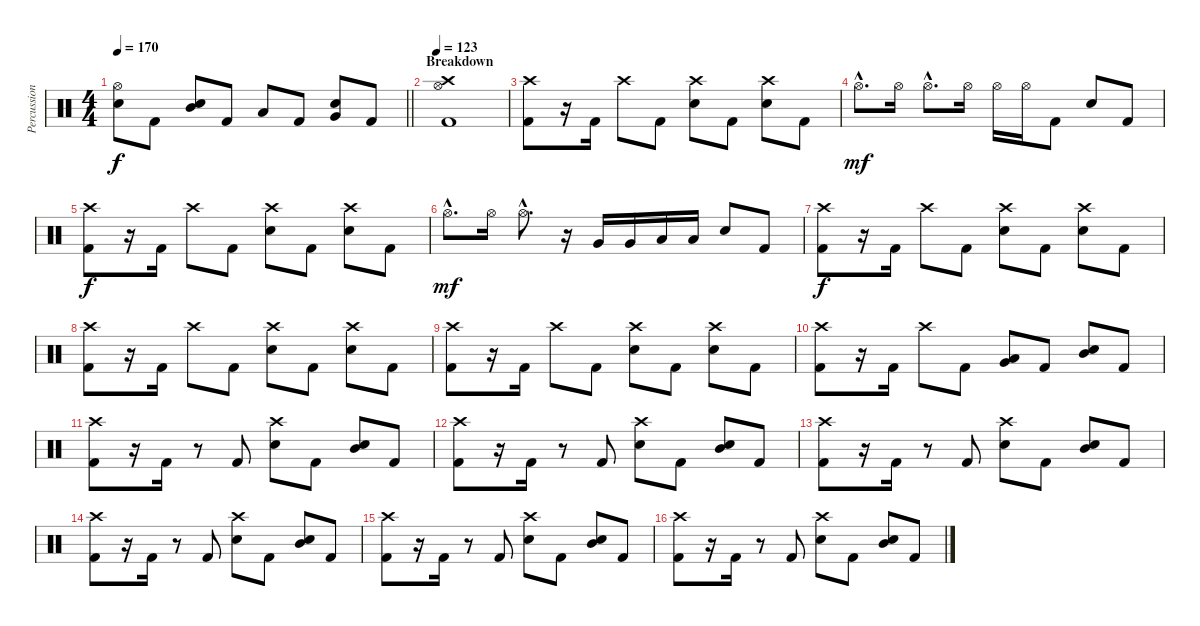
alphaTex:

\track ("Percussion" "Percussion") {instrument percussion}
\staff {score}
\articulation defaults
\ts (4 4)
\tempo 170
\clef neutral
\barLineRight lightlight
\ks c
("Hi-Hat (open)" "Electric Snare (hit)").8{dy f} "Kick (hit) 2".8 ("Mid Tom (hit)" "Electric Snare (hit)").8 "Kick (hit) 2".8 "Low Tom (hit)".8 "Kick (hit) 2".8 ("Electric Snare (hit)" "Very Low Tom (hit)").8 "Kick (hit) 2".8 |
\section ("" "Breakdown")
\tempo 123
("Crash high (hit)" "Hi-Hat (open)" "Kick (hit) 2").1 |
("Crash high (hit)" "Kick (hit) 2").8 r.16 "Kick (hit) 2".16 "Crash high (hit)".8 "Kick (hit) 2".8 ("Crash high (hit)" "Electric Snare (hit)").8 "Kick (hit) 2".8 ("Crash high (hit)" "Electric Snare (hit)").8 "Kick (hit) 2".8 |
"Hi-Hat (open)"{hac}.8{d dy mf} "Hi-Hat (open)".16 "Hi-Hat (open)"{hac}.8{d} "Hi-Hat (open)".16 "Hi-Hat (open)".16 "Hi-Hat (open)".16 "Kick (hit) 2".8 "Electric Snare (hit)".8 "Kick (hit) 2".8 |
("Crash high (hit)" "Kick (hit) 2").8{dy f} r.16 "Kick (hit) 2".16 "Crash high (hit)".8 "Kick (hit) 2".8 ("Crash high (hit)" "Electric Snare (hit)").8 "Kick (hit) 2".8 ("Crash high (hit)" "Electric Snare (hit)").8 "Kick (hit) 2".8 |
"Hi-Hat (open)"{hac}.8{d dy mf} "Hi-Hat (open)".16 "Hi-Hat (open)"{hac}.8{d} r.16 "Very Low Tom (hit)".16 "Very Low Tom (hit)".16 "Low Tom (hit)".16 "Low Tom (hit)".16 "Electric Snare (hit)".8 "Kick (hit) 2".8 |
("Crash high (hit)" "Kick (hit) 2").8{dy f} r.16 "Kick (hit) 2".16 "Crash high (hit)".8 "Kick (hit) 2".8 ("Crash high (hit)" "Electric Snare (hit)").8 "Kick (hit) 2".8 ("Crash high (hit)" "Electric Snare (hit)").8 "Kick (hit) 2".8 |
("Crash high (hit)" "Kick (hit) 2").8 r.16 "Kick (hit) 2".16 "Crash high (hit)".8 "Kick (hit) 2".8 ("Crash high (hit)" "Electric Snare (hit)").8 "Kick (hit) 2".8 ("Crash high (hit)" "Electric Snare (hit)").8 "Kick (hit) 2".8 |
("Crash high (hit)" "Kick (hit) 2").8 r.16 "Kick (hit) 2".16 "Crash high (hit)".8 "Kick (hit) 2".8 ("Crash high (hit)" "Electric Snare (hit)").8 "Kick (hit) 2".8 ("Crash high (hit)" "Electric Snare (hit)").8 "Kick (hit) 2".8 |
("Crash high (hit)" "Kick (hit) 2").8 r.16 "Kick (hit) 2".16 "Crash high (hit)".8 "Kick (hit) 2".8 ("Very Low Tom (hit)" "Low Tom (hit)").8 "Kick (hit) 2".8 ("Mid Tom (hit)" "Electric Snare (hit)").8 "Kick (hit) 2".8 |
("Crash high (hit)" "Kick (hit) 2").8 r.16 "Kick (hit) 2".16 r.8 "Kick (hit) 2".8 ("Crash high (hit)" "Electric Snare (hit)").8 "Kick (hit) 2".8 ("Mid Tom (hit)" "Electric Snare (hit)").8 "Kick (hit) 2".8 |
("Crash high (hit)" "Kick (hit) 2").8 r.16 "Kick (hit) 2".16 r.8 "Kick (hit) 2".8 ("Crash high (hit)" "Electric Snare (hit)").8 "Kick (hit) 2".8 ("Mid Tom (hit)" "Electric Snare (hit)").8 "Kick (hit) 2".8 |
("Crash high (hit)" "Kick (hit) 2").8 r.16 "Kick (hit) 2".16 r.8 "Kick (hit) 2".8 ("Crash high (hit)" "Electric Snare (hit)").8 "Kick (hit) 2".8 ("Mid Tom (hit)" "Electric Snare (hit)").8 "Kick (hit) 2".8 |
("Crash high (hit)" "Kick (hit) 2").8 r.16 "Kick (hit) 2".16 r.8 "Kick (hit) 2".8 ("Crash high (hit)" "Electric Snare (hit)").8 "Kick (hit) 2".8 ("Mid Tom (hit)" "Electric Snare (hit)").8 "Kick (hit) 2".8 |
("Crash high (hit)" "Kick (hit) 2").8 r.16 "Kick (hit) 2".16 r.8 "Kick (hit) 2".8 ("Crash high (hit)" "Electric Snare (hit)").8 "Kick (hit) 2".8 ("Mid Tom (hit)" "Electric Snare (hit)").8 "Kick (hit) 2".8 |
("Crash high (hit)" "Kick (hit) 2").8 r.16 "Kick (hit) 2".16 r.8 "Kick (hit) 2".8 ("Crash high (hit)" "Electric Snare (hit)").8 "Kick (hit) 2".8 ("Mid Tom (hit)" "Electric Snare (hit)").8 "Kick (hit) 2".8
